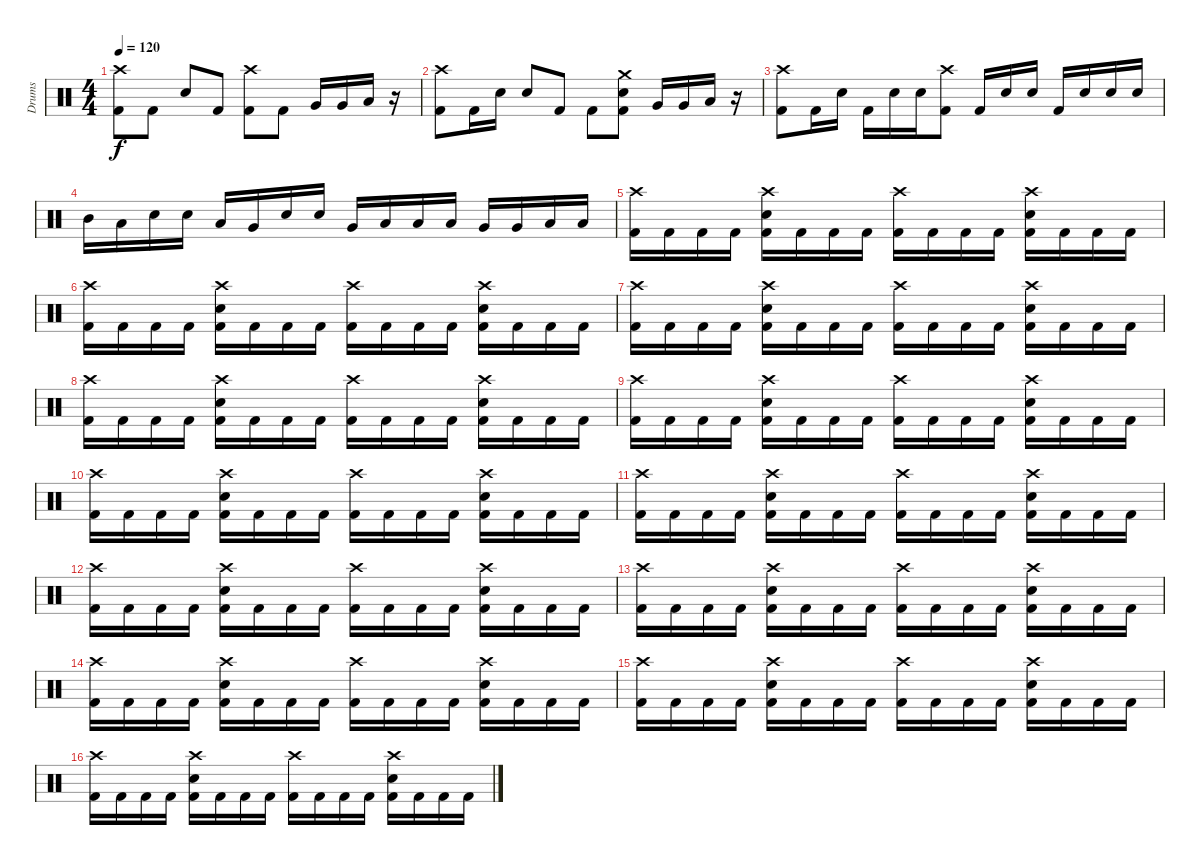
\track ("Drums" "Drums") {instrument percussion}
\staff {score}
\articulation defaults
\ts (4 4)
\tempo 120
\clef neutral
\ks c
("Crash high (hit)" "Kick (hit) 2").8{dy f} "Kick (hit) 2".8 "Snare (hit) 2".8 "Kick (hit) 2".8 ("Crash high (hit)" "Kick (hit) 2").8 "Kick (hit) 2".8 "Very Low Tom (hit)".16 "Very Low Tom (hit)".16 "Low Floor Tom (hit)".16 r.16 |
("Crash high (hit)" "Kick (hit) 2").8 "Kick (hit) 2".16 "Snare (hit) 2".16 "Snare (hit) 2".8 "Kick (hit) 2".8 "Kick (hit) 2".8 ("Crash medium (hit)" "Snare (hit) 2" "Kick (hit) 2").8 "Very Low Tom (hit)".16 "Very Low Tom (hit)".16 "Low Floor Tom (hit)".16 r.16 |
("Crash high (hit)" "Kick (hit) 2").8 "Kick (hit) 2".16 "Snare (hit) 2".16 "Kick (hit) 2".16 "Snare (hit) 2".16 "Snare (hit) 2".16 ("Crash high (hit)" "Kick (hit) 2").8 "Kick (hit) 2".16 "Snare (hit) 2".16 "Snare (hit) 2".16 "Kick (hit) 2".16 "Snare (hit) 2".16 "Snare (hit) 2".16 "Snare (hit) 2".16 |
"Mid Tom (hit)".16 "Low Tom (hit)".16 "Snare (hit) 2".16 "Snare (hit) 2".16 "Low Tom (hit)".16 "Very Low Tom (hit)".16 "Snare (hit) 2".16 "Snare (hit) 2".16 "Very Low Tom (hit)".16 "Low Floor Tom (hit)".16 "Low Tom (hit)".16 "Low Tom (hit)".16 "Very Low Tom (hit)".16 "Very Low Tom (hit)".16 "Low Floor Tom (hit)".16 "Low Floor Tom (hit)".16 |
("Crash high (hit)" "Kick (hit) 2").16 "Kick (hit) 2".16 "Kick (hit) 2".16 "Kick (hit) 2".16 ("Crash high (hit)" "Snare (hit) 2" "Kick (hit) 2").16 "Kick (hit) 2".16 "Kick (hit) 2".16 "Kick (hit) 2".16 ("Crash high (hit)" "Kick (hit) 2").16 "Kick (hit) 2".16 "Kick (hit) 2".16 "Kick (hit) 2".16 ("Crash high (hit)" "Snare (hit) 2" "Kick (hit) 2").16 "Kick (hit) 2".16 "Kick (hit) 2".16 "Kick (hit) 2".16 |
("Crash high (hit)" "Kick (hit) 2").16 "Kick (hit) 2".16 "Kick (hit) 2".16 "Kick (hit) 2".16 ("Crash high (hit)" "Snare (hit) 2" "Kick (hit) 2").16 "Kick (hit) 2".16 "Kick (hit) 2".16 "Kick (hit) 2".16 ("Crash high (hit)" "Kick (hit) 2").16 "Kick (hit) 2".16 "Kick (hit) 2".16 "Kick (hit) 2".16 ("Crash high (hit)" "Snare (hit) 2" "Kick (hit) 2").16 "Kick (hit) 2".16 "Kick (hit) 2".16 "Kick (hit) 2".16 |
("Crash high (hit)" "Kick (hit) 2").16 "Kick (hit) 2".16 "Kick (hit) 2".16 "Kick (hit) 2".16 ("Crash high (hit)" "Snare (hit) 2" "Kick (hit) 2").16 "Kick (hit) 2".16 "Kick (hit) 2".16 "Kick (hit) 2".16 ("Crash high (hit)" "Kick (hit) 2").16 "Kick (hit) 2".16 "Kick (hit) 2".16 "Kick (hit) 2".16 ("Crash high (hit)" "Snare (hit) 2" "Kick (hit) 2").16 "Kick (hit) 2".16 "Kick (hit) 2".16 "Kick (hit) 2".16 |
("Crash high (hit)" "Kick (hit) 2").16 "Kick (hit) 2".16 "Kick (hit) 2".16 "Kick (hit) 2".16 ("Crash high (hit)" "Snare (hit) 2" "Kick (hit) 2").16 "Kick (hit) 2".16 "Kick (hit) 2".16 "Kick (hit) 2".16 ("Crash high (hit)" "Kick (hit) 2").16 "Kick (hit) 2".16 "Kick (hit) 2".16 "Kick (hit) 2".16 ("Crash high (hit)" "Snare (hit) 2" "Kick (hit) 2").16 "Kick (hit) 2".16 "Kick (hit) 2".16 "Kick (hit) 2".16 |
("Crash high (hit)" "Kick (hit) 2").16 "Kick (hit) 2".16 "Kick (hit) 2".16 "Kick (hit) 2".16 ("Crash high (hit)" "Snare (hit) 2" "Kick (hit) 2").16 "Kick (hit) 2".16 "Kick (hit) 2".16 "Kick (hit) 2".16 ("Crash high (hit)" "Kick (hit) 2").16 "Kick (hit) 2".16 "Kick (hit) 2".16 "Kick (hit) 2".16 ("Crash high (hit)" "Snare (hit) 2" "Kick (hit) 2").16 "Kick (hit) 2".16 "Kick (hit) 2".16 "Kick (hit) 2".16 |
("Crash high (hit)" "Kick (hit) 2").16 "Kick (hit) 2".16 "Kick (hit) 2".16 "Kick (hit) 2".16 ("Crash high (hit)" "Snare (hit) 2" "Kick (hit) 2").16 "Kick (hit) 2".16 "Kick (hit) 2".16 "Kick (hit) 2".16 ("Crash high (hit)" "Kick (hit) 2").16 "Kick (hit) 2".16 "Kick (hit) 2".16 "Kick (hit) 2".16 ("Crash high (hit)" "Snare (hit) 2" "Kick (hit) 2").16 "Kick (hit) 2".16 "Kick (hit) 2".16 "Kick (hit) 2".16 |
("Crash high (hit)" "Kick (hit) 2").16 "Kick (hit) 2".16 "Kick (hit) 2".16 "Kick (hit) 2".16 ("Crash high (hit)" "Snare (hit) 2" "Kick (hit) 2").16 "Kick (hit) 2".16 "Kick (hit) 2".16 "Kick (hit) 2".16 ("Crash high (hit)" "Kick (hit) 2").16 "Kick (hit) 2".16 "Kick (hit) 2".16 "Kick (hit) 2".16 ("Crash high (hit)" "Snare (hit) 2" "Kick (hit) 2").16 "Kick (hit) 2".16 "Kick (hit) 2".16 "Kick (hit) 2".16 |
("Crash high (hit)" "Kick (hit) 2").16 "Kick (hit) 2".16 "Kick (hit) 2".16 "Kick (hit) 2".16 ("Crash high (hit)" "Snare (hit) 2" "Kick (hit) 2").16 "Kick (hit) 2".16 "Kick (hit) 2".16 "Kick (hit) 2".16 ("Crash high (hit)" "Kick (hit) 2").16 "Kick (hit) 2".16 "Kick (hit) 2".16 "Kick (hit) 2".16 ("Crash high (hit)" "Snare (hit) 2" "Kick (hit) 2").16 "Kick (hit) 2".16 "Kick (hit) 2".16 "Kick (hit) 2".16 |
("Crash high (hit)" "Kick (hit) 2").16 "Kick (hit) 2".16 "Kick (hit) 2".16 "Kick (hit) 2".16 ("Crash high (hit)" "Snare (hit) 2" "Kick (hit) 2").16 "Kick (hit) 2".16 "Kick (hit) 2".16 "Kick (hit) 2".16 ("Crash high (hit)" "Kick (hit) 2").16 "Kick (hit) 2".16 "Kick (hit) 2".16 "Kick (hit) 2".16 ("Crash high (hit)" "Snare (hit) 2" "Kick (hit) 2").16 "Kick (hit) 2".16 "Kick (hit) 2".16 "Kick (hit) 2".16 |
("Crash high (hit)" "Kick (hit) 2").16 "Kick (hit) 2".16 "Kick (hit) 2".16 "Kick (hit) 2".16 ("Crash high (hit)" "Snare (hit) 2" "Kick (hit) 2").16 "Kick (hit) 2".16 "Kick (hit) 2".16 "Kick (hit) 2".16 ("Crash high (hit)" "Kick (hit) 2").16 "Kick (hit) 2".16 "Kick (hit) 2".16 "Kick (hit) 2".16 ("Crash high (hit)" "Snare (hit) 2" "Kick (hit) 2").16 "Kick (hit) 2".16 "Kick (hit) 2".16 "Kick (hit) 2".16 |
("Crash high (hit)" "Kick (hit) 2").16 "Kick (hit) 2".16 "Kick (hit) 2".16 "Kick (hit) 2".16 ("Crash high (hit)" "Snare (hit) 2" "Kick (hit) 2").16 "Kick (hit) 2".16 "Kick (hit) 2".16 "Kick (hit) 2".16 ("Crash high (hit)" "Kick (hit) 2").16 "Kick (hit) 2".16 "Kick (hit) 2".16 "Kick (hit) 2".16 ("Crash high (hit)" "Snare (hit) 2" "Kick (hit) 2").16 "Kick (hit) 2".16 "Kick (hit) 2".16 "Kick (hit) 2".16 |
("Crash high (hit)" "Kick (hit) 2").16 "Kick (hit) 2".16 "Kick (hit) 2".16 "Kick (hit) 2".16 ("Crash high (hit)" "Snare (hit) 2" "Kick (hit) 2").16 "Kick (hit) 2".16 "Kick (hit) 2".16 "Kick (hit) 2".16 ("Crash high (hit)" "Kick (hit) 2").16 "Kick (hit) 2".16 "Kick (hit) 2".16 "Kick (hit) 2".16 ("Crash high (hit)" "Snare (hit) 2" "Kick (hit) 2").16 "Kick (hit) 2".16 "Kick (hit) 2".16 "Kick (hit) 2".16
